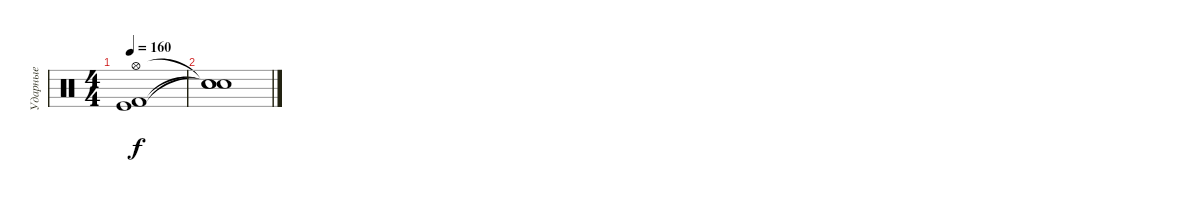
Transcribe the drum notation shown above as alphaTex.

\track ("Ударные" "Ударные") {instrument percussion}
\staff {score}
\articulation defaults
\ts (4 4)
\tempo 160
\clef neutral
\ks c
("Hi-Hat (open)" "Kick (hit) 2" "Kick (hit)").1{dy f} |
("Snare (hit)"{t} "Snare (hit)"{t} "Snare (hit)"{t}).1
